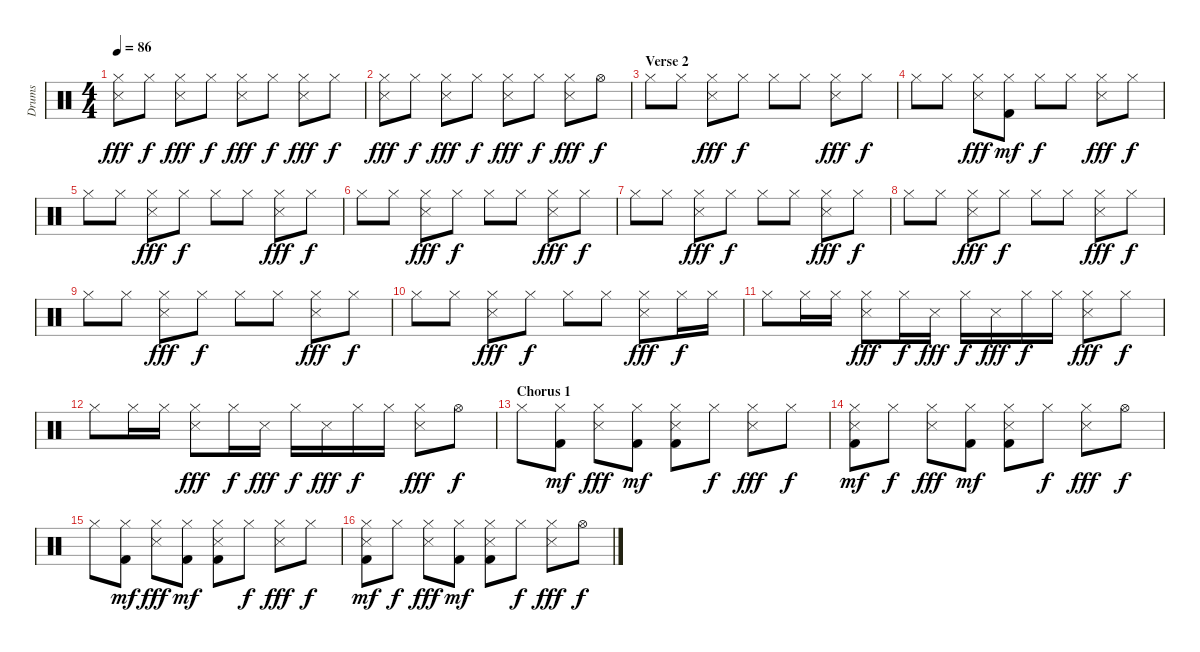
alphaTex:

\track ("Drums" "Drums") {instrument percussion}
\staff {score}
\articulation defaults
\ts (4 4)
\tempo 86
\clef neutral
\ks c
("Hi-Hat (closed)" "Snare (side stick) 3").8{dy fff} "Hi-Hat (closed)".8{dy f} ("Hi-Hat (closed)" "Snare (side stick) 3").8{dy fff} "Hi-Hat (closed)".8{dy f} ("Hi-Hat (closed)" "Snare (side stick) 3").8{dy fff} "Hi-Hat (closed)".8{dy f} ("Hi-Hat (closed)" "Snare (side stick) 3").8{dy fff} "Hi-Hat (closed)".8{dy f} |
("Hi-Hat (closed)" "Snare (side stick) 3").8{dy fff} "Hi-Hat (closed)".8{dy f} ("Hi-Hat (closed)" "Snare (side stick) 3").8{dy fff} "Hi-Hat (closed)".8{dy f} ("Hi-Hat (closed)" "Snare (side stick) 3").8{dy fff} "Hi-Hat (closed)".8{dy f} ("Hi-Hat (closed)" "Snare (side stick) 3").8{dy fff} "Hi-Hat (open)".8{dy f} |
\section ("" "Verse 2")
"Hi-Hat (closed)".8 "Hi-Hat (closed)".8 ("Hi-Hat (closed)" "Snare (side stick) 3").8{dy fff} "Hi-Hat (closed)".8{dy f} "Hi-Hat (closed)".8 "Hi-Hat (closed)".8 ("Hi-Hat (closed)" "Snare (side stick) 3").8{dy fff} "Hi-Hat (closed)".8{dy f} |
"Hi-Hat (closed)".8 "Hi-Hat (closed)".8 ("Hi-Hat (closed)" "Snare (side stick) 3").8{dy fff} ("Hi-Hat (closed)" "Kick (hit) 2").8{dy mf} "Hi-Hat (closed)".8{dy f} "Hi-Hat (closed)".8 ("Hi-Hat (closed)" "Snare (side stick) 3").8{dy fff} "Hi-Hat (closed)".8{dy f} |
"Hi-Hat (closed)".8 "Hi-Hat (closed)".8 ("Hi-Hat (closed)" "Snare (side stick) 3").8{dy fff} "Hi-Hat (closed)".8{dy f} "Hi-Hat (closed)".8 "Hi-Hat (closed)".8 ("Hi-Hat (closed)" "Snare (side stick) 3").8{dy fff} "Hi-Hat (closed)".8{dy f} |
"Hi-Hat (closed)".8 "Hi-Hat (closed)".8 ("Hi-Hat (closed)" "Snare (side stick) 3").8{dy fff} "Hi-Hat (closed)".8{dy f} "Hi-Hat (closed)".8 "Hi-Hat (closed)".8 ("Hi-Hat (closed)" "Snare (side stick) 3").8{dy fff} "Hi-Hat (closed)".8{dy f} |
"Hi-Hat (closed)".8 "Hi-Hat (closed)".8 ("Hi-Hat (closed)" "Snare (side stick) 3").8{dy fff} "Hi-Hat (closed)".8{dy f} "Hi-Hat (closed)".8 "Hi-Hat (closed)".8 ("Hi-Hat (closed)" "Snare (side stick) 3").8{dy fff} "Hi-Hat (closed)".8{dy f} |
"Hi-Hat (closed)".8 "Hi-Hat (closed)".8 ("Hi-Hat (closed)" "Snare (side stick) 3").8{dy fff} "Hi-Hat (closed)".8{dy f} "Hi-Hat (closed)".8 "Hi-Hat (closed)".8 ("Hi-Hat (closed)" "Snare (side stick) 3").8{dy fff} "Hi-Hat (closed)".8{dy f} |
"Hi-Hat (closed)".8 "Hi-Hat (closed)".8 ("Hi-Hat (closed)" "Snare (side stick) 3").8{dy fff} "Hi-Hat (closed)".8{dy f} "Hi-Hat (closed)".8 "Hi-Hat (closed)".8 ("Hi-Hat (closed)" "Snare (side stick) 3").8{dy fff} "Hi-Hat (closed)".8{dy f} |
"Hi-Hat (closed)".8 "Hi-Hat (closed)".8 ("Hi-Hat (closed)" "Snare (side stick) 3").8{dy fff} "Hi-Hat (closed)".8{dy f} "Hi-Hat (closed)".8 "Hi-Hat (closed)".8 ("Hi-Hat (closed)" "Snare (side stick) 3").8{dy fff} "Hi-Hat (closed)".16{dy f} "Hi-Hat (closed)".16 |
"Hi-Hat (closed)".8 "Hi-Hat (closed)".16 "Hi-Hat (closed)".16 ("Hi-Hat (closed)" "Snare (side stick) 3").8{dy fff} "Hi-Hat (closed)".16{dy f} "Snare (side stick) 3".16{dy fff} "Hi-Hat (closed)".16{dy f} "Snare (side stick) 3".16{dy fff} "Hi-Hat (closed)".16{dy f} "Hi-Hat (closed)".16 ("Hi-Hat (closed)" "Snare (side stick) 3").8{dy fff} "Hi-Hat (closed)".8{dy f} |
"Hi-Hat (closed)".8 "Hi-Hat (closed)".16 "Hi-Hat (closed)".16 ("Hi-Hat (closed)" "Snare (side stick) 3").8{dy fff} "Hi-Hat (closed)".16{dy f} "Snare (side stick) 3".16{dy fff} "Hi-Hat (closed)".16{dy f} "Snare (side stick) 3".16{dy fff} "Hi-Hat (closed)".16{dy f} "Hi-Hat (closed)".16 ("Hi-Hat (closed)" "Snare (side stick) 3").8{dy fff} "Hi-Hat (open)".8{dy f} |
\section ("" "Chorus 1")
"Hi-Hat (closed)".8 ("Hi-Hat (closed)" "Kick (hit) 2").8{dy mf} ("Hi-Hat (closed)" "Snare (side stick) 3").8{dy fff} ("Hi-Hat (closed)" "Kick (hit) 2").8{dy mf} ("Hi-Hat (closed)" "Snare (side stick) 3" "Kick (hit) 2").8 "Hi-Hat (closed)".8{dy f} ("Hi-Hat (closed)" "Snare (side stick) 3").8{dy fff} "Hi-Hat (closed)".8{dy f} |
("Hi-Hat (closed)" "Snare (side stick) 3" "Kick (hit) 2").8{dy mf} "Hi-Hat (closed)".8{dy f} ("Hi-Hat (closed)" "Snare (side stick) 3").8{dy fff} ("Hi-Hat (closed)" "Kick (hit) 2").8{dy mf} ("Hi-Hat (closed)" "Snare (side stick) 3" "Kick (hit) 2").8 "Hi-Hat (closed)".8{dy f} ("Hi-Hat (closed)" "Snare (side stick) 3").8{dy fff} "Hi-Hat (open)".8{dy f} |
"Hi-Hat (closed)".8 ("Hi-Hat (closed)" "Kick (hit) 2").8{dy mf} ("Hi-Hat (closed)" "Snare (side stick) 3").8{dy fff} ("Hi-Hat (closed)" "Kick (hit) 2").8{dy mf} ("Hi-Hat (closed)" "Snare (side stick) 3" "Kick (hit) 2").8 "Hi-Hat (closed)".8{dy f} ("Hi-Hat (closed)" "Snare (side stick) 3").8{dy fff} "Hi-Hat (closed)".8{dy f} |
("Hi-Hat (closed)" "Snare (side stick) 3" "Kick (hit) 2").8{dy mf} "Hi-Hat (closed)".8{dy f} ("Hi-Hat (closed)" "Snare (side stick) 3").8{dy fff} ("Hi-Hat (closed)" "Kick (hit) 2").8{dy mf} ("Hi-Hat (closed)" "Snare (side stick) 3" "Kick (hit) 2").8 "Hi-Hat (closed)".8{dy f} ("Hi-Hat (closed)" "Snare (side stick) 3").8{dy fff} "Hi-Hat (open)".8{dy f}
